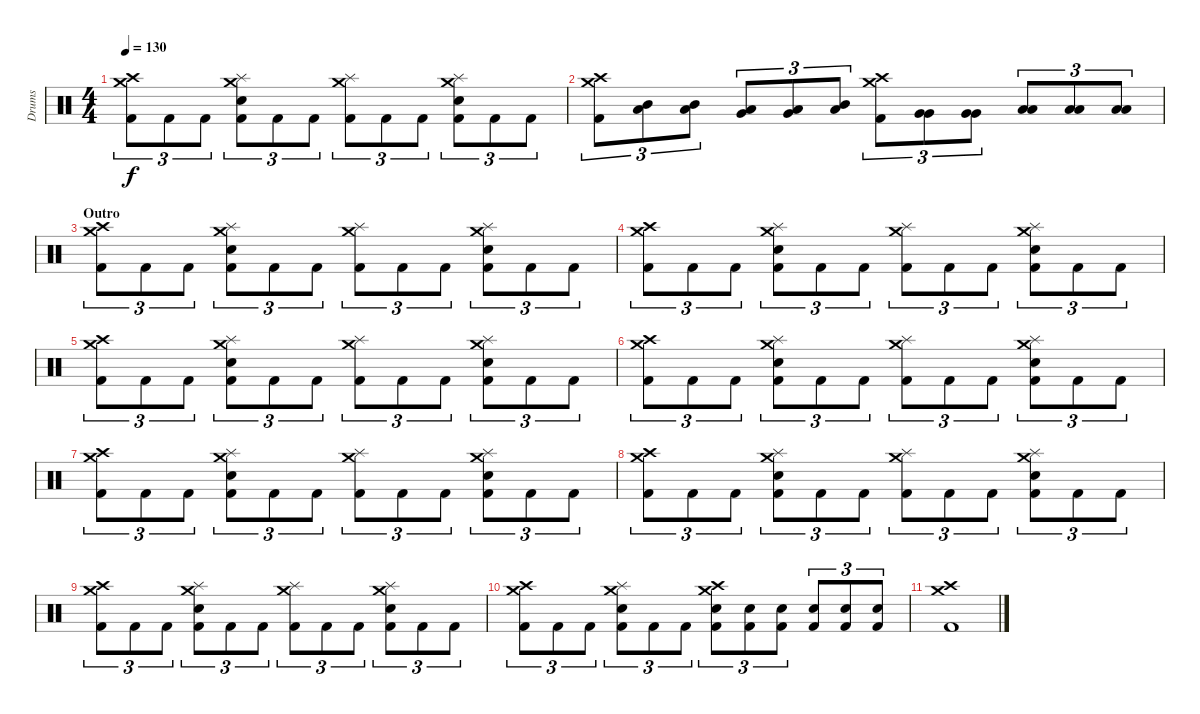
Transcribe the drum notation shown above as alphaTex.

\track ("Drums" "Drums") {instrument percussion}
\staff {score}
\articulation defaults
\ts (4 4)
\tempo 130
\clef neutral
\ks c
("Crash medium (hit)" "Crash high (hit)" "Kick (hit) 2").8{tu (3 2) dy f} "Kick (hit) 2".8{tu (3 2)} "Kick (hit) 2".8{tu (3 2)} ("Crash medium (hit)" "Splash (hit)" "Snare (hit) 2" "Kick (hit) 2").8{tu (3 2)} "Kick (hit) 2".8{tu (3 2)} "Kick (hit) 2".8{tu (3 2)} ("Crash medium (hit)" "Splash (hit)" "Kick (hit) 2").8{tu (3 2)} "Kick (hit) 2".8{tu (3 2)} "Kick (hit) 2".8{tu (3 2)} ("Crash medium (hit)" "Splash (hit)" "Snare (hit) 2" "Kick (hit) 2").8{tu (3 2)} "Kick (hit) 2".8{tu (3 2)} "Kick (hit) 2".8{tu (3 2)} |
("Crash medium (hit)" "Crash high (hit)" "Kick (hit) 2").8{tu (3 2)} ("Mid Tom (hit)" "Low Tom (hit)").8{tu (3 2)} ("Mid Tom (hit)" "Low Tom (hit)").8{tu (3 2)} ("Low Tom (hit)" "Very Low Tom (hit)").8{tu (3 2)} ("Low Tom (hit)" "Very Low Tom (hit)").8{tu (3 2)} ("Mid Tom (hit)" "Low Tom (hit)").8{tu (3 2)} ("Crash high (hit)" "Crash medium (hit)" "Kick (hit) 2").8{tu (3 2)} ("Very Low Tom (hit)" "Very Low Tom (hit)").8{tu (3 2)} ("Very Low Tom (hit)" "Very Low Tom (hit)").8{tu (3 2)} ("Low Floor Tom (hit)" "Low Floor Tom (hit)").8{tu (3 2)} ("Low Floor Tom (hit)" "Low Floor Tom (hit)").8{tu (3 2)} ("Low Floor Tom (hit)" "Low Floor Tom (hit)").8{tu (3 2)} |
\section ("" "Outro")
("Crash medium (hit)" "Crash high (hit)" "Kick (hit) 2").8{tu (3 2)} "Kick (hit) 2".8{tu (3 2)} "Kick (hit) 2".8{tu (3 2)} ("Crash medium (hit)" "Splash (hit)" "Snare (hit) 2" "Kick (hit) 2").8{tu (3 2)} "Kick (hit) 2".8{tu (3 2)} "Kick (hit) 2".8{tu (3 2)} ("Crash medium (hit)" "Splash (hit)" "Kick (hit) 2").8{tu (3 2)} "Kick (hit) 2".8{tu (3 2)} "Kick (hit) 2".8{tu (3 2)} ("Crash medium (hit)" "Splash (hit)" "Snare (hit) 2" "Kick (hit) 2").8{tu (3 2)} "Kick (hit) 2".8{tu (3 2)} "Kick (hit) 2".8{tu (3 2)} |
("Crash medium (hit)" "Crash high (hit)" "Kick (hit) 2").8{tu (3 2)} "Kick (hit) 2".8{tu (3 2)} "Kick (hit) 2".8{tu (3 2)} ("Crash medium (hit)" "Splash (hit)" "Snare (hit) 2" "Kick (hit) 2").8{tu (3 2)} "Kick (hit) 2".8{tu (3 2)} "Kick (hit) 2".8{tu (3 2)} ("Crash medium (hit)" "Splash (hit)" "Kick (hit) 2").8{tu (3 2)} "Kick (hit) 2".8{tu (3 2)} "Kick (hit) 2".8{tu (3 2)} ("Crash medium (hit)" "Splash (hit)" "Snare (hit) 2" "Kick (hit) 2").8{tu (3 2)} "Kick (hit) 2".8{tu (3 2)} "Kick (hit) 2".8{tu (3 2)} |
("Crash medium (hit)" "Crash high (hit)" "Kick (hit) 2").8{tu (3 2)} "Kick (hit) 2".8{tu (3 2)} "Kick (hit) 2".8{tu (3 2)} ("Crash medium (hit)" "Splash (hit)" "Snare (hit) 2" "Kick (hit) 2").8{tu (3 2)} "Kick (hit) 2".8{tu (3 2)} "Kick (hit) 2".8{tu (3 2)} ("Crash medium (hit)" "Splash (hit)" "Kick (hit) 2").8{tu (3 2)} "Kick (hit) 2".8{tu (3 2)} "Kick (hit) 2".8{tu (3 2)} ("Crash medium (hit)" "Splash (hit)" "Snare (hit) 2" "Kick (hit) 2").8{tu (3 2)} "Kick (hit) 2".8{tu (3 2)} "Kick (hit) 2".8{tu (3 2)} |
("Crash medium (hit)" "Crash high (hit)" "Kick (hit) 2").8{tu (3 2)} "Kick (hit) 2".8{tu (3 2)} "Kick (hit) 2".8{tu (3 2)} ("Crash medium (hit)" "Splash (hit)" "Snare (hit) 2" "Kick (hit) 2").8{tu (3 2)} "Kick (hit) 2".8{tu (3 2)} "Kick (hit) 2".8{tu (3 2)} ("Crash medium (hit)" "Splash (hit)" "Kick (hit) 2").8{tu (3 2)} "Kick (hit) 2".8{tu (3 2)} "Kick (hit) 2".8{tu (3 2)} ("Crash medium (hit)" "Splash (hit)" "Snare (hit) 2" "Kick (hit) 2").8{tu (3 2)} "Kick (hit) 2".8{tu (3 2)} "Kick (hit) 2".8{tu (3 2)} |
("Crash medium (hit)" "Crash high (hit)" "Kick (hit) 2").8{tu (3 2)} "Kick (hit) 2".8{tu (3 2)} "Kick (hit) 2".8{tu (3 2)} ("Crash medium (hit)" "Splash (hit)" "Snare (hit) 2" "Kick (hit) 2").8{tu (3 2)} "Kick (hit) 2".8{tu (3 2)} "Kick (hit) 2".8{tu (3 2)} ("Crash medium (hit)" "Splash (hit)" "Kick (hit) 2").8{tu (3 2)} "Kick (hit) 2".8{tu (3 2)} "Kick (hit) 2".8{tu (3 2)} ("Crash medium (hit)" "Splash (hit)" "Snare (hit) 2" "Kick (hit) 2").8{tu (3 2)} "Kick (hit) 2".8{tu (3 2)} "Kick (hit) 2".8{tu (3 2)} |
("Crash medium (hit)" "Crash high (hit)" "Kick (hit) 2").8{tu (3 2)} "Kick (hit) 2".8{tu (3 2)} "Kick (hit) 2".8{tu (3 2)} ("Crash medium (hit)" "Splash (hit)" "Snare (hit) 2" "Kick (hit) 2").8{tu (3 2)} "Kick (hit) 2".8{tu (3 2)} "Kick (hit) 2".8{tu (3 2)} ("Crash medium (hit)" "Splash (hit)" "Kick (hit) 2").8{tu (3 2)} "Kick (hit) 2".8{tu (3 2)} "Kick (hit) 2".8{tu (3 2)} ("Crash medium (hit)" "Splash (hit)" "Snare (hit) 2" "Kick (hit) 2").8{tu (3 2)} "Kick (hit) 2".8{tu (3 2)} "Kick (hit) 2".8{tu (3 2)} |
("Crash medium (hit)" "Crash high (hit)" "Kick (hit) 2").8{tu (3 2)} "Kick (hit) 2".8{tu (3 2)} "Kick (hit) 2".8{tu (3 2)} ("Crash medium (hit)" "Splash (hit)" "Snare (hit) 2" "Kick (hit) 2").8{tu (3 2)} "Kick (hit) 2".8{tu (3 2)} "Kick (hit) 2".8{tu (3 2)} ("Crash medium (hit)" "Splash (hit)" "Kick (hit) 2").8{tu (3 2)} "Kick (hit) 2".8{tu (3 2)} "Kick (hit) 2".8{tu (3 2)} ("Crash medium (hit)" "Splash (hit)" "Snare (hit) 2" "Kick (hit) 2").8{tu (3 2)} "Kick (hit) 2".8{tu (3 2)} "Kick (hit) 2".8{tu (3 2)} |
("Crash medium (hit)" "Crash high (hit)" "Kick (hit) 2").8{tu (3 2)} "Kick (hit) 2".8{tu (3 2)} "Kick (hit) 2".8{tu (3 2)} ("Crash medium (hit)" "Splash (hit)" "Snare (hit) 2" "Kick (hit) 2").8{tu (3 2)} "Kick (hit) 2".8{tu (3 2)} "Kick (hit) 2".8{tu (3 2)} ("Crash high (hit)" "Crash medium (hit)" "Snare (hit) 2" "Kick (hit) 2").8{tu (3 2)} ("Snare (hit) 2" "Kick (hit) 2").8{tu (3 2)} ("Snare (hit) 2" "Kick (hit) 2").8{tu (3 2)} ("Snare (hit) 2" "Kick (hit) 2").8{tu (3 2)} ("Snare (hit) 2" "Kick (hit) 2").8{tu (3 2)} ("Snare (hit) 2" "Kick (hit) 2").8{tu (3 2)} |
("Crash high (hit)" "Crash medium (hit)" "Kick (hit) 2").1
